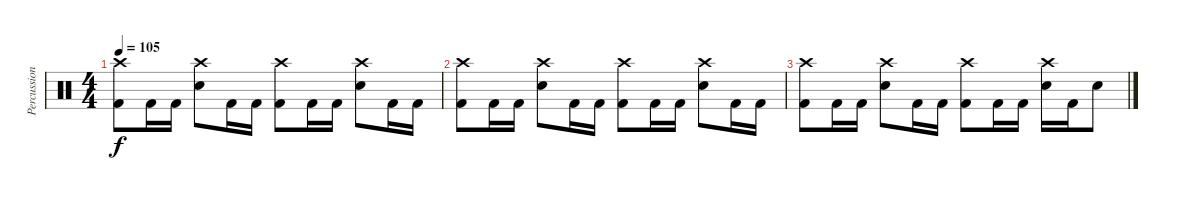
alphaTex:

\track ("Percussion" "Percussion") {instrument percussion}
\staff {score}
\articulation defaults
\ts (4 4)
\tempo 105
\clef neutral
\ks c
("Crash high (hit)" "Kick (hit) 2").8{dy f} "Kick (hit) 2".16 "Kick (hit) 2".16 ("Crash high (hit)" "Electric Snare (hit)").8 "Kick (hit) 2".16 "Kick (hit) 2".16 ("Crash high (hit)" "Kick (hit) 2").8 "Kick (hit) 2".16 "Kick (hit) 2".16 ("Crash high (hit)" "Electric Snare (hit)").8 "Kick (hit) 2".16 "Kick (hit) 2".16 |
("Crash high (hit)" "Kick (hit) 2").8 "Kick (hit) 2".16 "Kick (hit) 2".16 ("Crash high (hit)" "Electric Snare (hit)").8 "Kick (hit) 2".16 "Kick (hit) 2".16 ("Crash high (hit)" "Kick (hit) 2").8 "Kick (hit) 2".16 "Kick (hit) 2".16 ("Crash high (hit)" "Electric Snare (hit)").8 "Kick (hit) 2".16 "Kick (hit) 2".16 |
("Crash high (hit)" "Kick (hit) 2").8 "Kick (hit) 2".16 "Kick (hit) 2".16 ("Crash high (hit)" "Electric Snare (hit)").8 "Kick (hit) 2".16 "Kick (hit) 2".16 ("Crash high (hit)" "Kick (hit) 2").8 "Kick (hit) 2".16 "Kick (hit) 2".16 ("Crash high (hit)" "Electric Snare (hit)").16 "Kick (hit) 2".16 "Electric Snare (hit)".8
